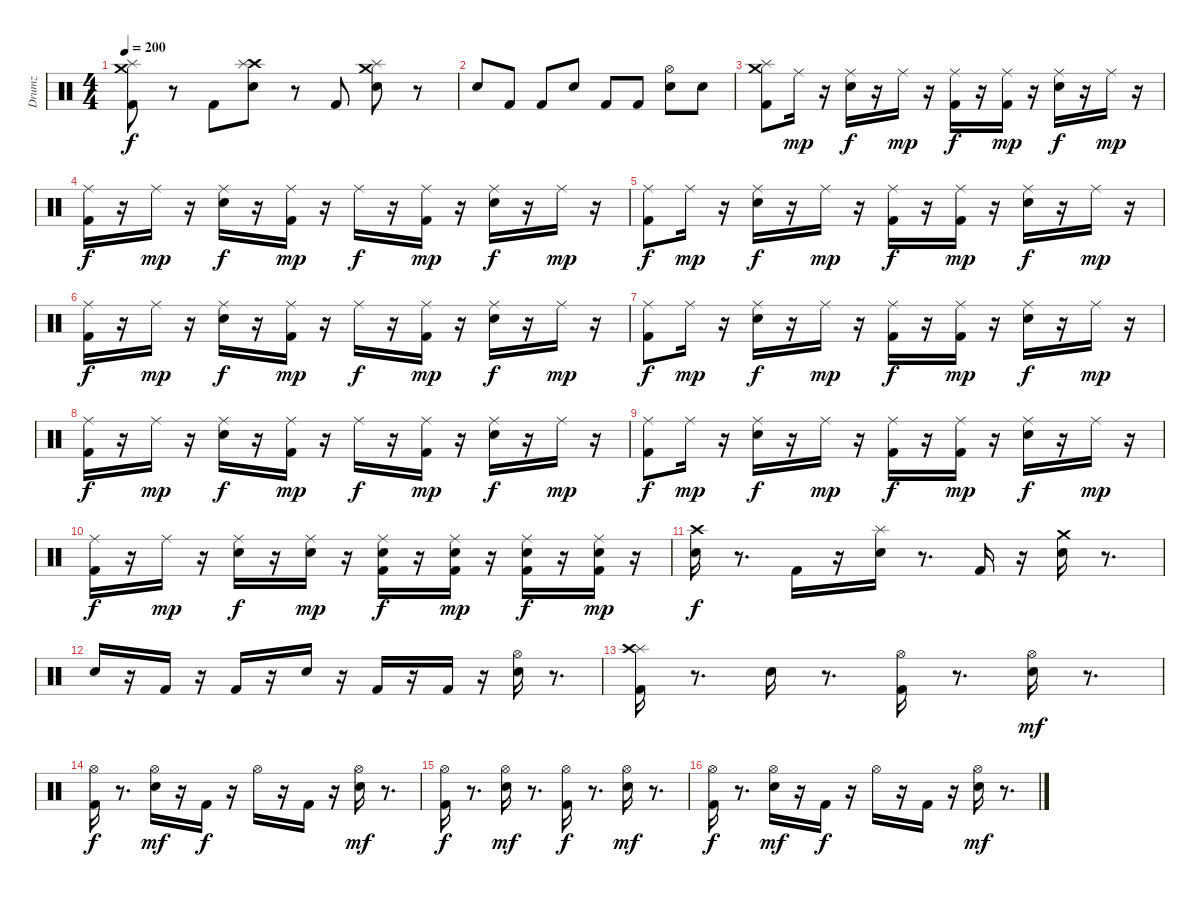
\track ("Drumz" "Drumz") {instrument percussion}
\staff {score}
\articulation defaults
\ts (4 4)
\tempo 200
\clef neutral
\ks c
("Kick (hit) 2" "Crash medium (hit)" "Splash (hit)").8{dy f} r.8 "Kick (hit) 2".8 ("Snare (hit) 2" "Crash high (hit)" "Splash (hit)").8 r.8 "Kick (hit) 2".8 ("Snare (hit) 2" "Crash medium (hit)" "Splash (hit)").8 r.8 |
"Snare (hit) 2".8 "Kick (hit) 2".8 "Kick (hit) 2".8 "Snare (hit) 2".8 "Kick (hit) 2".8 "Kick (hit) 2".8 ("Hi-Hat (open)" "Snare (hit) 2").8 "Snare (hit) 2".8 |
("Kick (hit) 2" "Crash medium (hit)" "Splash (hit)").8 "Ride (middle)".16{dy mp} r.16 ("Snare (hit) 2" "Ride (middle)").16{dy f} r.16 "Ride (middle)".16{dy mp} r.16 ("Kick (hit) 2" "Ride (middle)").16{dy f} r.16 ("Kick (hit) 2" "Ride (middle)").16{dy mp} r.16 ("Snare (hit) 2" "Ride (middle)").16{dy f} r.16 "Ride (middle)".16{dy mp} r.16 |
("Kick (hit) 2" "Ride (middle)").16{dy f} r.16 "Ride (middle)".16{dy mp} r.16 ("Snare (hit) 2" "Ride (middle)").16{dy f} r.16 ("Kick (hit) 2" "Ride (middle)").16{dy mp} r.16 "Ride (middle)".16{dy f} r.16 ("Kick (hit) 2" "Ride (middle)").16{dy mp} r.16 ("Snare (hit) 2" "Ride (middle)").16{dy f} r.16 "Ride (middle)".16{dy mp} r.16 |
("Kick (hit) 2" "Ride (middle)").8{dy f} "Ride (middle)".16{dy mp} r.16 ("Snare (hit) 2" "Ride (middle)").16{dy f} r.16 "Ride (middle)".16{dy mp} r.16 ("Kick (hit) 2" "Ride (middle)").16{dy f} r.16 ("Kick (hit) 2" "Ride (middle)").16{dy mp} r.16 ("Snare (hit) 2" "Ride (middle)").16{dy f} r.16 "Ride (middle)".16{dy mp} r.16 |
("Kick (hit) 2" "Ride (middle)").16{dy f} r.16 "Ride (middle)".16{dy mp} r.16 ("Snare (hit) 2" "Ride (middle)").16{dy f} r.16 ("Kick (hit) 2" "Ride (middle)").16{dy mp} r.16 "Ride (middle)".16{dy f} r.16 ("Kick (hit) 2" "Ride (middle)").16{dy mp} r.16 ("Snare (hit) 2" "Ride (middle)").16{dy f} r.16 "Ride (middle)".16{dy mp} r.16 |
("Kick (hit) 2" "Ride (middle)").8{dy f} "Ride (middle)".16{dy mp} r.16 ("Snare (hit) 2" "Ride (middle)").16{dy f} r.16 "Ride (middle)".16{dy mp} r.16 ("Kick (hit) 2" "Ride (middle)").16{dy f} r.16 ("Kick (hit) 2" "Ride (middle)").16{dy mp} r.16 ("Snare (hit) 2" "Ride (middle)").16{dy f} r.16 "Ride (middle)".16{dy mp} r.16 |
("Kick (hit) 2" "Ride (middle)").16{dy f} r.16 "Ride (middle)".16{dy mp} r.16 ("Snare (hit) 2" "Ride (middle)").16{dy f} r.16 ("Kick (hit) 2" "Ride (middle)").16{dy mp} r.16 "Ride (middle)".16{dy f} r.16 ("Kick (hit) 2" "Ride (middle)").16{dy mp} r.16 ("Snare (hit) 2" "Ride (middle)").16{dy f} r.16 "Ride (middle)".16{dy mp} r.16 |
("Kick (hit) 2" "Ride (middle)").8{dy f} "Ride (middle)".16{dy mp} r.16 ("Snare (hit) 2" "Ride (middle)").16{dy f} r.16 "Ride (middle)".16{dy mp} r.16 ("Kick (hit) 2" "Ride (middle)").16{dy f} r.16 ("Kick (hit) 2" "Ride (middle)").16{dy mp} r.16 ("Snare (hit) 2" "Ride (middle)").16{dy f} r.16 "Ride (middle)".16{dy mp} r.16 |
("Kick (hit) 2" "Ride (middle)").16{dy f} r.16 "Ride (middle)".16{dy mp} r.16 ("Snare (hit) 2" "Ride (middle)").16{dy f} r.16 ("Snare (hit) 2" "Ride (middle)").16{dy mp} r.16 ("Snare (hit) 2" "Kick (hit) 2" "Ride (middle)").16{dy f} r.16 ("Snare (hit) 2" "Kick (hit) 2" "Ride (middle)").16{dy mp} r.16 ("Kick (hit) 2" "Snare (hit) 2" "Ride (middle)").16{dy f} r.16 ("Snare (hit) 2" "Kick (hit) 2" "Ride (middle)").16{dy mp} r.16 |
("Snare (hit) 2" "Crash high (hit)").16{dy f} r.8{d} "Kick (hit) 2".16 r.16 ("Snare (hit) 2" "Splash (hit)").16 r.8{d} "Kick (hit) 2".16 r.16 ("Snare (hit) 2" "Crash medium (hit)").16 r.8{d} |
"Snare (hit) 2".16 r.16 "Kick (hit) 2".16 r.16 "Kick (hit) 2".16 r.16 "Snare (hit) 2".16 r.16 "Kick (hit) 2".16 r.16 "Kick (hit) 2".16 r.16 ("Snare (hit) 2" "Hi-Hat (open)").16 r.8{d} |
("Kick (hit) 2" "Splash (hit)" "Crash high (hit)").16 r.8{d} "Snare (hit) 2".16 r.8{d} ("Hi-Hat (open)" "Kick (hit) 2").16 r.8{d} ("Snare (hit) 2" "Hi-Hat (open)").16{dy mf} r.8{d} |
("Kick (hit) 2" "Hi-Hat (open)").16{dy f} r.8{d} ("Snare (hit) 2" "Hi-Hat (open)").16{dy mf} r.16 "Kick (hit) 2".16{dy f} r.16 "Hi-Hat (open)".16 r.16 "Kick (hit) 2".16 r.16 ("Snare (hit) 2" "Hi-Hat (open)").16{dy mf} r.8{d} |
("Kick (hit) 2" "Hi-Hat (open)").16{dy f} r.8{d} ("Snare (hit) 2" "Hi-Hat (open)").16{dy mf} r.8{d} ("Hi-Hat (open)" "Kick (hit) 2").16{dy f} r.8{d} ("Snare (hit) 2" "Hi-Hat (open)").16{dy mf} r.8{d} |
("Kick (hit) 2" "Hi-Hat (open)").16{dy f} r.8{d} ("Snare (hit) 2" "Hi-Hat (open)").16{dy mf} r.16 "Kick (hit) 2".16{dy f} r.16 "Hi-Hat (open)".16 r.16 "Kick (hit) 2".16 r.16 ("Snare (hit) 2" "Hi-Hat (open)").16{dy mf} r.8{d}
